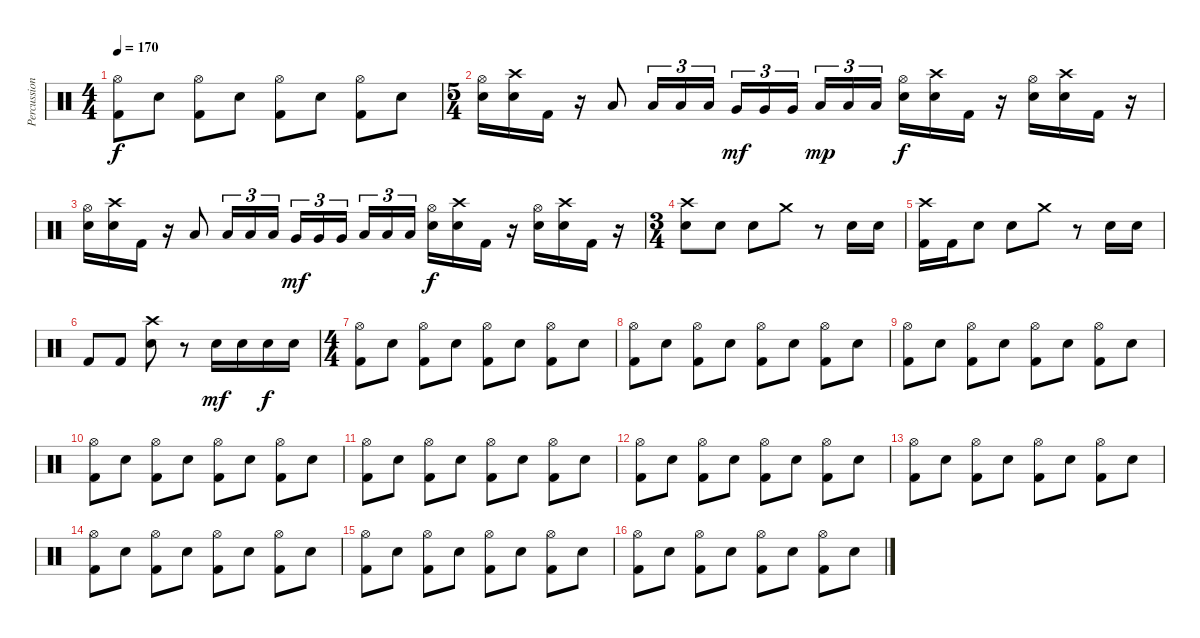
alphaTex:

\track ("Percussion" "Percussion") {instrument percussion}
\staff {score}
\articulation defaults
\ts (4 4)
\tempo 170
\clef neutral
\ks c
("Hi-Hat (open)" "Kick (hit) 2").8{dy f} "Snare (hit) 2".8 ("Hi-Hat (open)" "Kick (hit) 2").8 "Snare (hit) 2".8 ("Hi-Hat (open)" "Kick (hit) 2").8 "Snare (hit) 2".8 ("Hi-Hat (open)" "Kick (hit) 2").8 "Snare (hit) 2".8 |
\ts (5 4)
("Hi-Hat (open)" "Snare (hit) 2").16 ("Crash high (hit)" "Snare (hit) 2").16 "Kick (hit) 2".16 r.16 "Low Tom (hit)".8 "Low Tom (hit)".16{tu (3 2)} "Low Tom (hit)".16{tu (3 2)} "Low Tom (hit)".16{tu (3 2)} "Very Low Tom (hit)".16{tu (3 2) dy mf} "Very Low Tom (hit)".16{tu (3 2)} "Very Low Tom (hit)".16{tu (3 2) beam splitsecondary} "Low Floor Tom (hit)".16{tu (3 2) dy mp} "Low Floor Tom (hit)".16{tu (3 2)} "Low Floor Tom (hit)".16{tu (3 2)} ("Hi-Hat (open)" "Snare (hit) 2").16{dy f} ("Crash high (hit)" "Snare (hit) 2").16 "Kick (hit) 2".16 r.16 ("Hi-Hat (open)" "Snare (hit) 2").16 ("Crash high (hit)" "Snare (hit) 2").16 "Kick (hit) 2".16 r.16 |
("Hi-Hat (open)" "Snare (hit) 2").16 ("Crash high (hit)" "Snare (hit) 2").16 "Kick (hit) 2".16 r.16 "Low Tom (hit)".8 "Low Tom (hit)".16{tu (3 2)} "Low Tom (hit)".16{tu (3 2)} "Low Tom (hit)".16{tu (3 2)} "Very Low Tom (hit)".16{tu (3 2) dy mf} "Very Low Tom (hit)".16{tu (3 2)} "Very Low Tom (hit)".16{tu (3 2) beam splitsecondary} "Low Floor Tom (hit)".16{tu (3 2)} "Low Floor Tom (hit)".16{tu (3 2)} "Low Floor Tom (hit)".16{tu (3 2)} ("Hi-Hat (open)" "Snare (hit) 2").16{dy f} ("Crash high (hit)" "Snare (hit) 2").16 "Kick (hit) 2".16 r.16 ("Hi-Hat (open)" "Snare (hit) 2").16 ("Crash high (hit)" "Snare (hit) 2").16 "Kick (hit) 2".16 r.16 |
\ts (3 4)
("Crash high (hit)" "Snare (hit) 2").8 "Snare (hit) 2".8 "Snare (hit) 2".8 "Crash medium (hit)".8 r.8 "Snare (hit) 2".16 "Snare (hit) 2".16 |
("Crash high (hit)" "Kick (hit) 2").16 "Kick (hit) 2".16 "Snare (hit) 2".8 "Snare (hit) 2".8 "Crash medium (hit)".8 r.8 "Snare (hit) 2".16 "Snare (hit) 2".16 |
"Kick (hit) 2".8 "Kick (hit) 2".8 ("Crash high (hit)" "Snare (hit) 2").8 r.8 "Snare (hit) 2".16{dy mf} "Snare (hit) 2".16 "Snare (hit) 2".16{dy f} "Snare (hit) 2".16 |
\ts (4 4)
("Hi-Hat (open)" "Kick (hit) 2").8 "Snare (hit) 2".8 ("Hi-Hat (open)" "Kick (hit) 2").8 "Snare (hit) 2".8 ("Hi-Hat (open)" "Kick (hit) 2").8 "Snare (hit) 2".8 ("Hi-Hat (open)" "Kick (hit) 2").8 "Snare (hit) 2".8 |
("Hi-Hat (open)" "Kick (hit) 2").8 "Snare (hit) 2".8 ("Hi-Hat (open)" "Kick (hit) 2").8 "Snare (hit) 2".8 ("Hi-Hat (open)" "Kick (hit) 2").8 "Snare (hit) 2".8 ("Hi-Hat (open)" "Kick (hit) 2").8 "Snare (hit) 2".8 |
("Hi-Hat (open)" "Kick (hit) 2").8 "Snare (hit) 2".8 ("Hi-Hat (open)" "Kick (hit) 2").8 "Snare (hit) 2".8 ("Hi-Hat (open)" "Kick (hit) 2").8 "Snare (hit) 2".8 ("Hi-Hat (open)" "Kick (hit) 2").8 "Snare (hit) 2".8 |
("Hi-Hat (open)" "Kick (hit) 2").8 "Snare (hit) 2".8 ("Hi-Hat (open)" "Kick (hit) 2").8 "Snare (hit) 2".8 ("Hi-Hat (open)" "Kick (hit) 2").8 "Snare (hit) 2".8 ("Hi-Hat (open)" "Kick (hit) 2").8 "Snare (hit) 2".8 |
("Hi-Hat (open)" "Kick (hit) 2").8 "Snare (hit) 2".8 ("Hi-Hat (open)" "Kick (hit) 2").8 "Snare (hit) 2".8 ("Hi-Hat (open)" "Kick (hit) 2").8 "Snare (hit) 2".8 ("Hi-Hat (open)" "Kick (hit) 2").8 "Snare (hit) 2".8 |
("Hi-Hat (open)" "Kick (hit) 2").8 "Snare (hit) 2".8 ("Hi-Hat (open)" "Kick (hit) 2").8 "Snare (hit) 2".8 ("Hi-Hat (open)" "Kick (hit) 2").8 "Snare (hit) 2".8 ("Hi-Hat (open)" "Kick (hit) 2").8 "Snare (hit) 2".8 |
("Hi-Hat (open)" "Kick (hit) 2").8 "Snare (hit) 2".8 ("Hi-Hat (open)" "Kick (hit) 2").8 "Snare (hit) 2".8 ("Hi-Hat (open)" "Kick (hit) 2").8 "Snare (hit) 2".8 ("Hi-Hat (open)" "Kick (hit) 2").8 "Snare (hit) 2".8 |
("Hi-Hat (open)" "Kick (hit) 2").8 "Snare (hit) 2".8 ("Hi-Hat (open)" "Kick (hit) 2").8 "Snare (hit) 2".8 ("Hi-Hat (open)" "Kick (hit) 2").8 "Snare (hit) 2".8 ("Hi-Hat (open)" "Kick (hit) 2").8 "Snare (hit) 2".8 |
("Hi-Hat (open)" "Kick (hit) 2").8 "Snare (hit) 2".8 ("Hi-Hat (open)" "Kick (hit) 2").8 "Snare (hit) 2".8 ("Hi-Hat (open)" "Kick (hit) 2").8 "Snare (hit) 2".8 ("Hi-Hat (open)" "Kick (hit) 2").8 "Snare (hit) 2".8 |
("Hi-Hat (open)" "Kick (hit) 2").8 "Snare (hit) 2".8 ("Hi-Hat (open)" "Kick (hit) 2").8 "Snare (hit) 2".8 ("Hi-Hat (open)" "Kick (hit) 2").8 "Snare (hit) 2".8 ("Hi-Hat (open)" "Kick (hit) 2").8 "Snare (hit) 2".8
